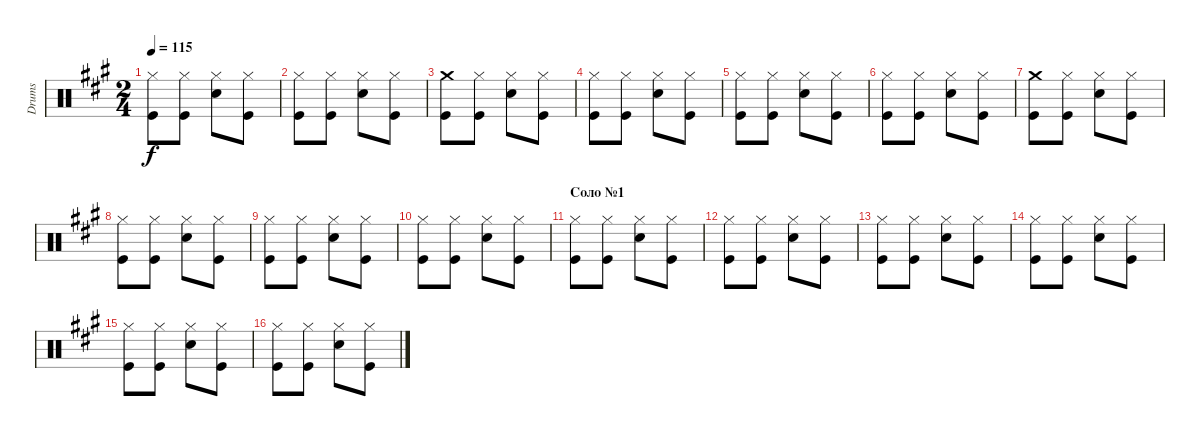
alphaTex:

\track ("Drums" "Drums") {instrument percussion}
\staff {score}
\articulation defaults
\ts (2 4)
\tempo 115
\clef neutral
\ks f#minor
("Hi-Hat (closed)" "Kick (hit)").8{dy f} ("Hi-Hat (closed)" "Kick (hit)").8 ("Hi-Hat (closed)" "Electric Snare (hit)").8 ("Hi-Hat (closed)" "Kick (hit)").8 |
("Hi-Hat (closed)" "Kick (hit)").8 ("Hi-Hat (closed)" "Kick (hit)").8 ("Hi-Hat (closed)" "Electric Snare (hit)").8 ("Hi-Hat (closed)" "Kick (hit)").8 |
("Crash medium (hit)" "Kick (hit)").8 ("Hi-Hat (closed)" "Kick (hit)").8 ("Hi-Hat (closed)" "Electric Snare (hit)").8 ("Hi-Hat (closed)" "Kick (hit)").8 |
("Hi-Hat (closed)" "Kick (hit)").8 ("Hi-Hat (closed)" "Kick (hit)").8 ("Hi-Hat (closed)" "Electric Snare (hit)").8 ("Hi-Hat (closed)" "Kick (hit)").8 |
("Hi-Hat (closed)" "Kick (hit)").8 ("Hi-Hat (closed)" "Kick (hit)").8 ("Hi-Hat (closed)" "Electric Snare (hit)").8 ("Hi-Hat (closed)" "Kick (hit)").8 |
("Hi-Hat (closed)" "Kick (hit)").8 ("Hi-Hat (closed)" "Kick (hit)").8 ("Hi-Hat (closed)" "Electric Snare (hit)").8 ("Hi-Hat (closed)" "Kick (hit)").8 |
("Crash medium (hit)" "Kick (hit)").8 ("Hi-Hat (closed)" "Kick (hit)").8 ("Hi-Hat (closed)" "Electric Snare (hit)").8 ("Hi-Hat (closed)" "Kick (hit)").8 |
("Hi-Hat (closed)" "Kick (hit)").8 ("Hi-Hat (closed)" "Kick (hit)").8 ("Hi-Hat (closed)" "Electric Snare (hit)").8 ("Hi-Hat (closed)" "Kick (hit)").8 |
("Hi-Hat (closed)" "Kick (hit)").8 ("Hi-Hat (closed)" "Kick (hit)").8 ("Hi-Hat (closed)" "Electric Snare (hit)").8 ("Hi-Hat (closed)" "Kick (hit)").8 |
("Hi-Hat (closed)" "Kick (hit)").8 ("Hi-Hat (closed)" "Kick (hit)").8 ("Hi-Hat (closed)" "Electric Snare (hit)").8 ("Hi-Hat (closed)" "Kick (hit)").8 |
\section ("" "Соло №1")
("Hi-Hat (closed)" "Kick (hit)").8 ("Hi-Hat (closed)" "Kick (hit)").8 ("Hi-Hat (closed)" "Electric Snare (hit)").8 ("Hi-Hat (closed)" "Kick (hit)").8 |
("Hi-Hat (closed)" "Kick (hit)").8 ("Hi-Hat (closed)" "Kick (hit)").8 ("Hi-Hat (closed)" "Electric Snare (hit)").8 ("Hi-Hat (closed)" "Kick (hit)").8 |
("Hi-Hat (closed)" "Kick (hit)").8 ("Hi-Hat (closed)" "Kick (hit)").8 ("Hi-Hat (closed)" "Electric Snare (hit)").8 ("Hi-Hat (closed)" "Kick (hit)").8 |
("Hi-Hat (closed)" "Kick (hit)").8 ("Hi-Hat (closed)" "Kick (hit)").8 ("Hi-Hat (closed)" "Electric Snare (hit)").8 ("Hi-Hat (closed)" "Kick (hit)").8 |
("Hi-Hat (closed)" "Kick (hit)").8 ("Hi-Hat (closed)" "Kick (hit)").8 ("Hi-Hat (closed)" "Electric Snare (hit)").8 ("Hi-Hat (closed)" "Kick (hit)").8 |
("Hi-Hat (closed)" "Kick (hit)").8 ("Hi-Hat (closed)" "Kick (hit)").8 ("Hi-Hat (closed)" "Electric Snare (hit)").8 ("Hi-Hat (closed)" "Kick (hit)").8
